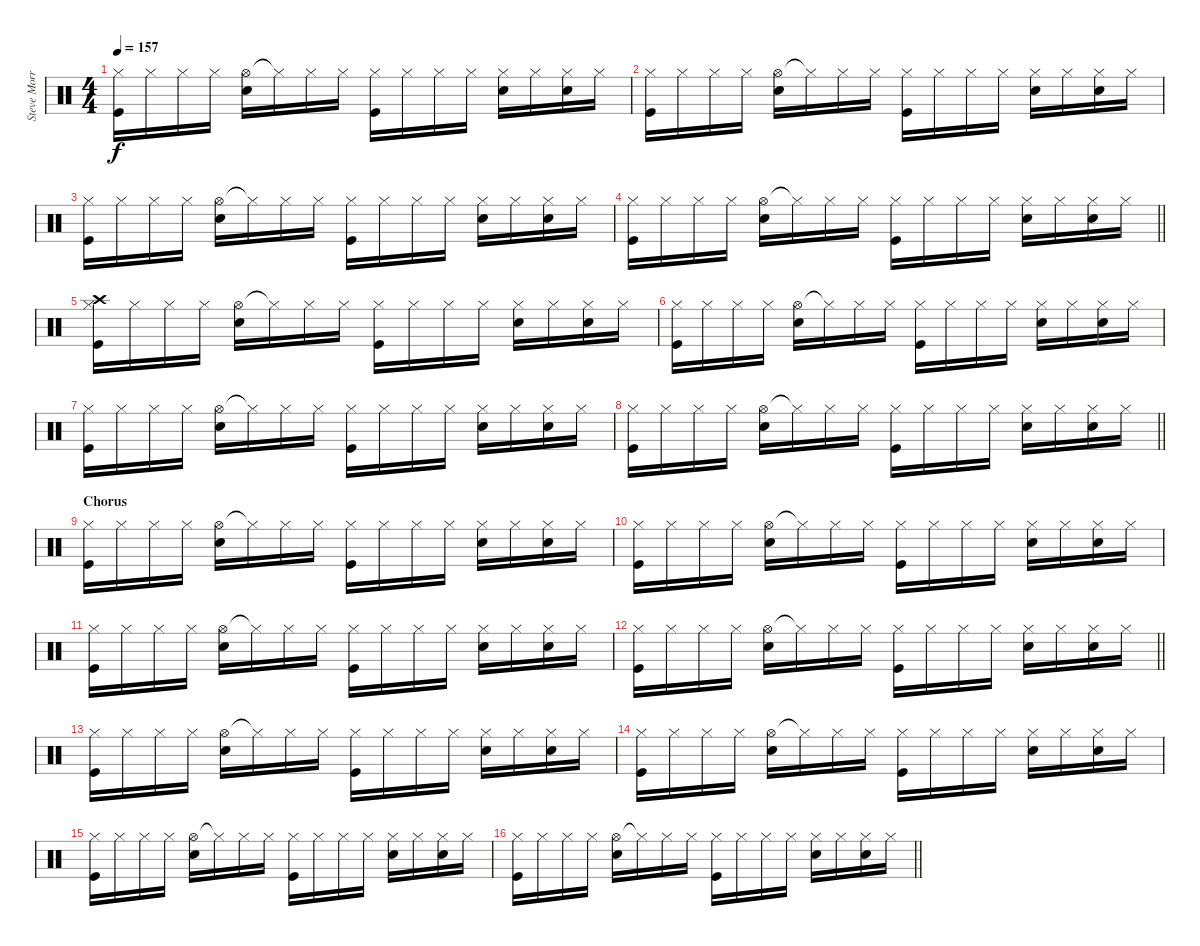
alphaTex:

\track ("Steve Morris" "Steve Morr") {instrument percussion}
\staff {score}
\articulation defaults
\ts (4 4)
\tempo 157
\clef neutral
\ks c
("Hi-Hat (closed)" "Kick (hit)").16{dy f} "Hi-Hat (closed)".16 "Hi-Hat (closed)".16 "Hi-Hat (closed)".16 ("Hi-Hat (open)" "Electric Snare (hit)").16 "Hi-Hat (closed)"{t}.16 "Hi-Hat (closed)".16 "Hi-Hat (closed)".16 ("Hi-Hat (closed)" "Kick (hit)").16 "Hi-Hat (closed)".16 "Hi-Hat (closed)".16 "Hi-Hat (closed)".16 ("Hi-Hat (closed)" "Electric Snare (hit)").16 "Hi-Hat (closed)".16 ("Hi-Hat (closed)" "Electric Snare (hit)").16 "Hi-Hat (closed)".16 |
("Hi-Hat (closed)" "Kick (hit)").16 "Hi-Hat (closed)".16 "Hi-Hat (closed)".16 "Hi-Hat (closed)".16 ("Hi-Hat (open)" "Electric Snare (hit)").16 "Hi-Hat (closed)"{t}.16 "Hi-Hat (closed)".16 "Hi-Hat (closed)".16 ("Hi-Hat (closed)" "Kick (hit)").16 "Hi-Hat (closed)".16 "Hi-Hat (closed)".16 "Hi-Hat (closed)".16 ("Hi-Hat (closed)" "Electric Snare (hit)").16 "Hi-Hat (closed)".16 ("Hi-Hat (closed)" "Electric Snare (hit)").16 "Hi-Hat (closed)".16 |
("Hi-Hat (closed)" "Kick (hit)").16 "Hi-Hat (closed)".16 "Hi-Hat (closed)".16 "Hi-Hat (closed)".16 ("Hi-Hat (open)" "Electric Snare (hit)").16 "Hi-Hat (closed)"{t}.16 "Hi-Hat (closed)".16 "Hi-Hat (closed)".16 ("Hi-Hat (closed)" "Kick (hit)").16 "Hi-Hat (closed)".16 "Hi-Hat (closed)".16 "Hi-Hat (closed)".16 ("Hi-Hat (closed)" "Electric Snare (hit)").16 "Hi-Hat (closed)".16 ("Hi-Hat (closed)" "Electric Snare (hit)").16 "Hi-Hat (closed)".16 |
\barLineRight lightlight
("Hi-Hat (closed)" "Kick (hit)").16 "Hi-Hat (closed)".16 "Hi-Hat (closed)".16 "Hi-Hat (closed)".16 ("Hi-Hat (open)" "Electric Snare (hit)").16 "Hi-Hat (closed)"{t}.16 "Hi-Hat (closed)".16 "Hi-Hat (closed)".16 ("Hi-Hat (closed)" "Kick (hit)").16 "Hi-Hat (closed)".16 "Hi-Hat (closed)".16 "Hi-Hat (closed)".16 ("Hi-Hat (closed)" "Electric Snare (hit)").16 "Hi-Hat (closed)".16 ("Hi-Hat (closed)" "Electric Snare (hit)").16 "Hi-Hat (closed)".16 |
("Hi-Hat (closed)" "Kick (hit)" "Crash high (hit)").16 "Hi-Hat (closed)".16 "Hi-Hat (closed)".16 "Hi-Hat (closed)".16 ("Hi-Hat (open)" "Electric Snare (hit)").16 "Hi-Hat (closed)"{t}.16 "Hi-Hat (closed)".16 "Hi-Hat (closed)".16 ("Hi-Hat (closed)" "Kick (hit)").16 "Hi-Hat (closed)".16 "Hi-Hat (closed)".16 "Hi-Hat (closed)".16 ("Hi-Hat (closed)" "Electric Snare (hit)").16 "Hi-Hat (closed)".16 ("Hi-Hat (closed)" "Electric Snare (hit)").16 "Hi-Hat (closed)".16 |
("Hi-Hat (closed)" "Kick (hit)").16 "Hi-Hat (closed)".16 "Hi-Hat (closed)".16 "Hi-Hat (closed)".16 ("Hi-Hat (open)" "Electric Snare (hit)").16 "Hi-Hat (closed)"{t}.16 "Hi-Hat (closed)".16 "Hi-Hat (closed)".16 ("Hi-Hat (closed)" "Kick (hit)").16 "Hi-Hat (closed)".16 "Hi-Hat (closed)".16 "Hi-Hat (closed)".16 ("Hi-Hat (closed)" "Electric Snare (hit)").16 "Hi-Hat (closed)".16 ("Hi-Hat (closed)" "Electric Snare (hit)").16 "Hi-Hat (closed)".16 |
("Hi-Hat (closed)" "Kick (hit)").16 "Hi-Hat (closed)".16 "Hi-Hat (closed)".16 "Hi-Hat (closed)".16 ("Hi-Hat (open)" "Electric Snare (hit)").16 "Hi-Hat (closed)"{t}.16 "Hi-Hat (closed)".16 "Hi-Hat (closed)".16 ("Hi-Hat (closed)" "Kick (hit)").16 "Hi-Hat (closed)".16 "Hi-Hat (closed)".16 "Hi-Hat (closed)".16 ("Hi-Hat (closed)" "Electric Snare (hit)").16 "Hi-Hat (closed)".16 ("Hi-Hat (closed)" "Electric Snare (hit)").16 "Hi-Hat (closed)".16 |
\barLineRight lightlight
("Hi-Hat (closed)" "Kick (hit)").16 "Hi-Hat (closed)".16 "Hi-Hat (closed)".16 "Hi-Hat (closed)".16 ("Hi-Hat (open)" "Electric Snare (hit)").16 "Hi-Hat (closed)"{t}.16 "Hi-Hat (closed)".16 "Hi-Hat (closed)".16 ("Hi-Hat (closed)" "Kick (hit)").16 "Hi-Hat (closed)".16 "Hi-Hat (closed)".16 "Hi-Hat (closed)".16 ("Hi-Hat (closed)" "Electric Snare (hit)").16 "Hi-Hat (closed)".16 ("Hi-Hat (closed)" "Electric Snare (hit)").16 "Hi-Hat (closed)".16 |
\section ("" "Chorus")
("Hi-Hat (closed)" "Kick (hit)").16 "Hi-Hat (closed)".16 "Hi-Hat (closed)".16 "Hi-Hat (closed)".16 ("Hi-Hat (open)" "Electric Snare (hit)").16 "Hi-Hat (closed)"{t}.16 "Hi-Hat (closed)".16 "Hi-Hat (closed)".16 ("Hi-Hat (closed)" "Kick (hit)").16 "Hi-Hat (closed)".16 "Hi-Hat (closed)".16 "Hi-Hat (closed)".16 ("Hi-Hat (closed)" "Electric Snare (hit)").16 "Hi-Hat (closed)".16 ("Hi-Hat (closed)" "Electric Snare (hit)").16 "Hi-Hat (closed)".16 |
("Hi-Hat (closed)" "Kick (hit)").16 "Hi-Hat (closed)".16 "Hi-Hat (closed)".16 "Hi-Hat (closed)".16 ("Hi-Hat (open)" "Electric Snare (hit)").16 "Hi-Hat (closed)"{t}.16 "Hi-Hat (closed)".16 "Hi-Hat (closed)".16 ("Hi-Hat (closed)" "Kick (hit)").16 "Hi-Hat (closed)".16 "Hi-Hat (closed)".16 "Hi-Hat (closed)".16 ("Hi-Hat (closed)" "Electric Snare (hit)").16 "Hi-Hat (closed)".16 ("Hi-Hat (closed)" "Electric Snare (hit)").16 "Hi-Hat (closed)".16 |
("Hi-Hat (closed)" "Kick (hit)").16 "Hi-Hat (closed)".16 "Hi-Hat (closed)".16 "Hi-Hat (closed)".16 ("Hi-Hat (open)" "Electric Snare (hit)").16 "Hi-Hat (closed)"{t}.16 "Hi-Hat (closed)".16 "Hi-Hat (closed)".16 ("Hi-Hat (closed)" "Kick (hit)").16 "Hi-Hat (closed)".16 "Hi-Hat (closed)".16 "Hi-Hat (closed)".16 ("Hi-Hat (closed)" "Electric Snare (hit)").16 "Hi-Hat (closed)".16 ("Hi-Hat (closed)" "Electric Snare (hit)").16 "Hi-Hat (closed)".16 |
\barLineRight lightlight
("Hi-Hat (closed)" "Kick (hit)").16 "Hi-Hat (closed)".16 "Hi-Hat (closed)".16 "Hi-Hat (closed)".16 ("Hi-Hat (open)" "Electric Snare (hit)").16 "Hi-Hat (closed)"{t}.16 "Hi-Hat (closed)".16 "Hi-Hat (closed)".16 ("Hi-Hat (closed)" "Kick (hit)").16 "Hi-Hat (closed)".16 "Hi-Hat (closed)".16 "Hi-Hat (closed)".16 ("Hi-Hat (closed)" "Electric Snare (hit)").16 "Hi-Hat (closed)".16 ("Hi-Hat (closed)" "Electric Snare (hit)").16 "Hi-Hat (closed)".16 |
("Hi-Hat (closed)" "Kick (hit)").16 "Hi-Hat (closed)".16 "Hi-Hat (closed)".16 "Hi-Hat (closed)".16 ("Hi-Hat (open)" "Electric Snare (hit)").16 "Hi-Hat (closed)"{t}.16 "Hi-Hat (closed)".16 "Hi-Hat (closed)".16 ("Hi-Hat (closed)" "Kick (hit)").16 "Hi-Hat (closed)".16 "Hi-Hat (closed)".16 "Hi-Hat (closed)".16 ("Hi-Hat (closed)" "Electric Snare (hit)").16 "Hi-Hat (closed)".16 ("Hi-Hat (closed)" "Electric Snare (hit)").16 "Hi-Hat (closed)".16 |
("Hi-Hat (closed)" "Kick (hit)").16 "Hi-Hat (closed)".16 "Hi-Hat (closed)".16 "Hi-Hat (closed)".16 ("Hi-Hat (open)" "Electric Snare (hit)").16 "Hi-Hat (closed)"{t}.16 "Hi-Hat (closed)".16 "Hi-Hat (closed)".16 ("Hi-Hat (closed)" "Kick (hit)").16 "Hi-Hat (closed)".16 "Hi-Hat (closed)".16 "Hi-Hat (closed)".16 ("Hi-Hat (closed)" "Electric Snare (hit)").16 "Hi-Hat (closed)".16 ("Hi-Hat (closed)" "Electric Snare (hit)").16 "Hi-Hat (closed)".16 |
("Hi-Hat (closed)" "Kick (hit)").16 "Hi-Hat (closed)".16 "Hi-Hat (closed)".16 "Hi-Hat (closed)".16 ("Hi-Hat (open)" "Electric Snare (hit)").16 "Hi-Hat (closed)"{t}.16 "Hi-Hat (closed)".16 "Hi-Hat (closed)".16 ("Hi-Hat (closed)" "Kick (hit)").16 "Hi-Hat (closed)".16 "Hi-Hat (closed)".16 "Hi-Hat (closed)".16 ("Hi-Hat (closed)" "Electric Snare (hit)").16 "Hi-Hat (closed)".16 ("Hi-Hat (closed)" "Electric Snare (hit)").16 "Hi-Hat (closed)".16 |
\barLineRight lightlight
("Hi-Hat (closed)" "Kick (hit)").16 "Hi-Hat (closed)".16 "Hi-Hat (closed)".16 "Hi-Hat (closed)".16 ("Hi-Hat (open)" "Electric Snare (hit)").16 "Hi-Hat (closed)"{t}.16 "Hi-Hat (closed)".16 "Hi-Hat (closed)".16 ("Hi-Hat (closed)" "Kick (hit)").16 "Hi-Hat (closed)".16 "Hi-Hat (closed)".16 "Hi-Hat (closed)".16 ("Hi-Hat (closed)" "Electric Snare (hit)").16 "Hi-Hat (closed)".16 ("Hi-Hat (closed)" "Electric Snare (hit)").16 "Hi-Hat (closed)".16
